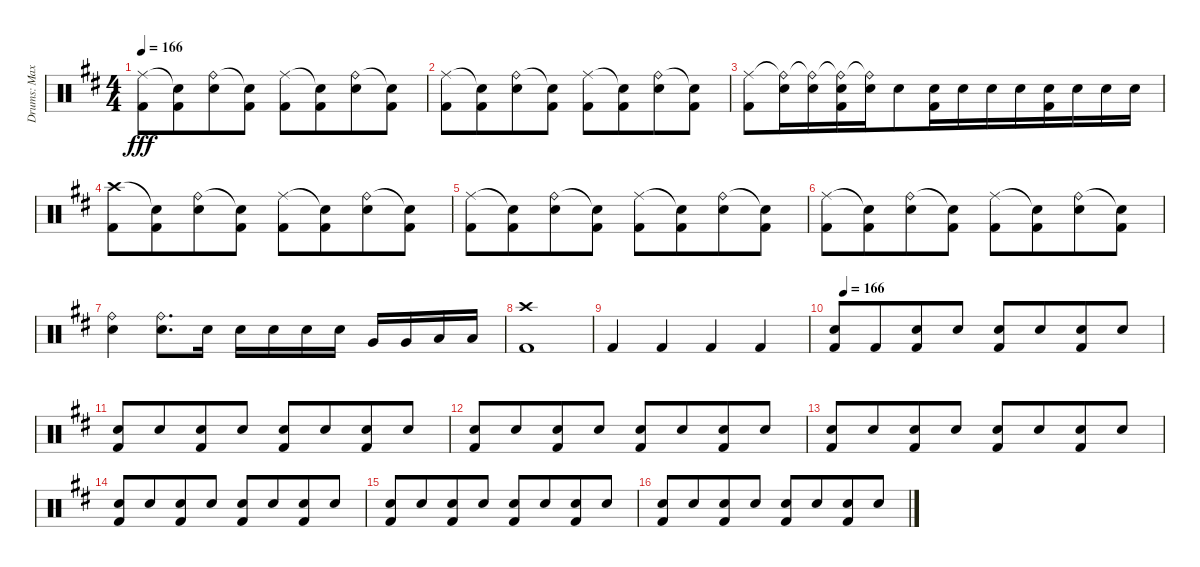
\track ("Drums: Max" "Drums: Max") {instrument percussion}
\staff {score}
\articulation defaults
\ts (4 4)
\tempo 166
\clef neutral
\ks d
("Ride (middle)" "Kick (hit) 2").8{dy fff} ("Snare (hit)"{t} "Kick (hit) 2").8{beam merge} ("Ride (bell)" "Electric Snare (hit)").8 ("Snare (hit)"{t} "Kick (hit) 2").8 ("Ride (middle)" "Kick (hit) 2").8 ("Snare (hit)"{t} "Kick (hit) 2").8{beam merge} ("Ride (bell)" "Electric Snare (hit)").8 ("Snare (hit)"{t} "Kick (hit) 2").8 |
("Ride (middle)" "Kick (hit) 2").8 ("Snare (hit)"{t} "Kick (hit) 2").8{beam merge} ("Ride (bell)" "Electric Snare (hit)").8 ("Snare (hit)"{t} "Kick (hit) 2").8 ("Ride (middle)" "Kick (hit) 2").8 ("Snare (hit)"{t} "Kick (hit) 2").8{beam merge} ("Ride (bell)" "Electric Snare (hit)").8 ("Snare (hit)"{t} "Kick (hit) 2").8 |
("Ride (middle)" "Kick (hit) 2").8{beam merge} ("Ride (bell)"{t} "Electric Snare (hit)").16{beam merge} ("Ride (bell)"{t} "Electric Snare (hit)").16{beam merge} ("Ride (bell)"{t} "Electric Snare (hit)" "Kick (hit) 2").16{beam merge} ("Ride (bell)"{t} "Electric Snare (hit)").16 "Electric Snare (hit)".8{beam merge} ("Electric Snare (hit)" "Kick (hit) 2").16{beam merge} "Electric Snare (hit)".16 "Electric Snare (hit)".16 "Electric Snare (hit)".16{beam merge} ("Electric Snare (hit)" "Kick (hit) 2").16{beam merge} "Electric Snare (hit)".16 "Electric Snare (hit)".16 "Electric Snare (hit)".16 |
("Crash high (hit)" "Kick (hit) 2").8 ("Snare (hit)"{t} "Kick (hit) 2").8{beam merge} ("Ride (bell)" "Electric Snare (hit)").8 ("Snare (hit)"{t} "Kick (hit) 2").8 ("Ride (middle)" "Kick (hit) 2").8 ("Snare (hit)"{t} "Kick (hit) 2").8{beam merge} ("Ride (bell)" "Electric Snare (hit)").8 ("Snare (hit)"{t} "Kick (hit) 2").8 |
("Ride (middle)" "Kick (hit) 2").8 ("Snare (hit)"{t} "Kick (hit) 2").8{beam merge} ("Ride (bell)" "Electric Snare (hit)").8 ("Snare (hit)"{t} "Kick (hit) 2").8 ("Ride (middle)" "Kick (hit) 2").8 ("Snare (hit)"{t} "Kick (hit) 2").8{beam merge} ("Ride (bell)" "Electric Snare (hit)").8 ("Snare (hit)"{t} "Kick (hit) 2").8 |
("Ride (middle)" "Kick (hit) 2").8 ("Snare (hit)"{t} "Kick (hit) 2").8{beam merge} ("Ride (bell)" "Electric Snare (hit)").8 ("Snare (hit)"{t} "Kick (hit) 2").8 ("Ride (middle)" "Kick (hit) 2").8 ("Snare (hit)"{t} "Kick (hit) 2").8{beam merge} ("Ride (bell)" "Electric Snare (hit)").8 ("Snare (hit)"{t} "Kick (hit) 2").8 |
("Ride (bell)" "Electric Snare (hit)").4{beam merge} ("Ride (bell)" "Electric Snare (hit)").8{d} "Electric Snare (hit)".16 "Electric Snare (hit)".16 "Electric Snare (hit)".16 "Electric Snare (hit)".16 "Electric Snare (hit)".16 "Very Low Tom (hit)".16 "Very Low Tom (hit)".16 "Low Floor Tom (hit)".16 "Low Floor Tom (hit)".16 |
("Crash high (hit)" "Kick (hit) 2").1 |
"Kick (hit) 2".4 "Kick (hit) 2".4 "Kick (hit) 2".4 "Kick (hit) 2".4 |
\tempo (166 0.03125)
("Electric Snare (hit)" "Kick (hit) 2").8 "Kick (hit) 2".8{beam merge} ("Electric Snare (hit)" "Kick (hit) 2").8 "Electric Snare (hit)".8 ("Electric Snare (hit)" "Kick (hit) 2").8 "Electric Snare (hit)".8{beam merge} ("Electric Snare (hit)" "Kick (hit) 2").8 "Electric Snare (hit)".8 |
("Electric Snare (hit)" "Kick (hit) 2").8 "Electric Snare (hit)".8{beam merge} ("Electric Snare (hit)" "Kick (hit) 2").8 "Electric Snare (hit)".8 ("Electric Snare (hit)" "Kick (hit) 2").8 "Electric Snare (hit)".8{beam merge} ("Electric Snare (hit)" "Kick (hit) 2").8 "Electric Snare (hit)".8 |
("Electric Snare (hit)" "Kick (hit) 2").8 "Electric Snare (hit)".8{beam merge} ("Electric Snare (hit)" "Kick (hit) 2").8 "Electric Snare (hit)".8 ("Electric Snare (hit)" "Kick (hit) 2").8 "Electric Snare (hit)".8{beam merge} ("Electric Snare (hit)" "Kick (hit) 2").8 "Electric Snare (hit)".8 |
("Electric Snare (hit)" "Kick (hit) 2").8 "Electric Snare (hit)".8{beam merge} ("Electric Snare (hit)" "Kick (hit) 2").8 "Electric Snare (hit)".8 ("Electric Snare (hit)" "Kick (hit) 2").8 "Electric Snare (hit)".8{beam merge} ("Electric Snare (hit)" "Kick (hit) 2").8 "Electric Snare (hit)".8 |
("Electric Snare (hit)" "Kick (hit) 2").8 "Electric Snare (hit)".8{beam merge} ("Electric Snare (hit)" "Kick (hit) 2").8 "Electric Snare (hit)".8 ("Electric Snare (hit)" "Kick (hit) 2").8 "Electric Snare (hit)".8{beam merge} ("Electric Snare (hit)" "Kick (hit) 2").8 "Electric Snare (hit)".8 |
("Electric Snare (hit)" "Kick (hit) 2").8 "Electric Snare (hit)".8{beam merge} ("Electric Snare (hit)" "Kick (hit) 2").8 "Electric Snare (hit)".8 ("Electric Snare (hit)" "Kick (hit) 2").8 "Electric Snare (hit)".8{beam merge} ("Electric Snare (hit)" "Kick (hit) 2").8 "Electric Snare (hit)".8 |
("Electric Snare (hit)" "Kick (hit) 2").8 "Electric Snare (hit)".8{beam merge} ("Electric Snare (hit)" "Kick (hit) 2").8 "Electric Snare (hit)".8 ("Electric Snare (hit)" "Kick (hit) 2").8 "Electric Snare (hit)".8{beam merge} ("Electric Snare (hit)" "Kick (hit) 2").8 "Electric Snare (hit)".8
